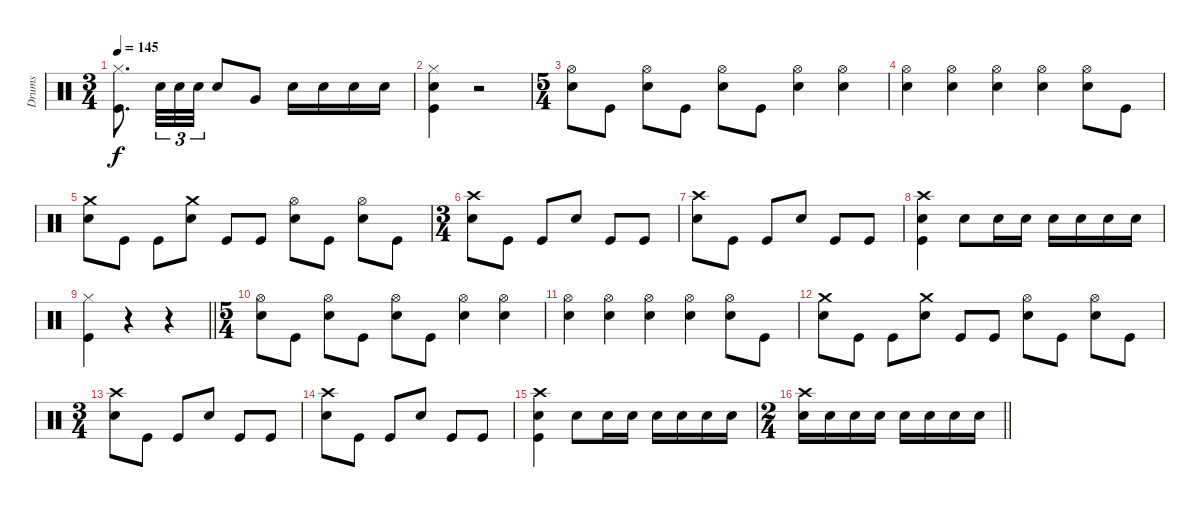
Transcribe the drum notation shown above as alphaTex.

\track ("Drums" "Drums") {instrument percussion}
\staff {score}
\articulation defaults
\ts (3 4)
\tempo 145
\clef neutral
\ks aminor
("Hi-Hat (closed)" "Kick (hit)").8{d dy f} "Snare (hit) 2".32{tu (3 2)} "Snare (hit) 2".32{tu (3 2)} "Snare (hit) 2".32{tu (3 2)} "Snare (hit) 2".8 "Very Low Tom (hit)".8 "Snare (hit) 2".16 "Snare (hit) 2".16 "Snare (hit) 2".16 "Snare (hit) 2".16 |
("Hi-Hat (closed)" "Snare (hit) 2" "Kick (hit)").4 r.2 |
\ts (5 4)
("Hi-Hat (open)" "Snare (hit) 2").8 "Kick (hit)".8 ("Hi-Hat (open)" "Snare (hit) 2").8 "Kick (hit)".8 ("Hi-Hat (open)" "Snare (hit) 2").8 "Kick (hit)".8 ("Hi-Hat (open)" "Snare (hit) 2").4 ("Hi-Hat (open)" "Snare (hit) 2").4 |
("Hi-Hat (open)" "Snare (hit) 2").4 ("Hi-Hat (open)" "Snare (hit) 2").4 ("Hi-Hat (open)" "Snare (hit) 2").4 ("Hi-Hat (open)" "Snare (hit) 2").4 ("Hi-Hat (open)" "Snare (hit) 2").8 "Kick (hit)".8 |
("Crash medium (hit)" "Snare (hit) 2").8 "Kick (hit)".8 "Kick (hit)".8 ("Crash medium (hit)" "Snare (hit) 2").8 "Kick (hit)".8 "Kick (hit)".8 ("Hi-Hat (open)" "Snare (hit) 2").8 "Kick (hit)".8 ("Hi-Hat (open)" "Snare (hit) 2").8 "Kick (hit)".8 |
\ts (3 4)
("Crash high (hit)" "Snare (hit) 2").8 "Kick (hit)".8 "Kick (hit)".8 "Snare (hit) 2".8 "Kick (hit)".8 "Kick (hit)".8 |
("Crash high (hit)" "Snare (hit) 2").8 "Kick (hit)".8 "Kick (hit)".8 "Snare (hit) 2".8 "Kick (hit)".8 "Kick (hit)".8 |
("Crash high (hit)" "Snare (hit) 2" "Kick (hit)").4 "Snare (hit) 2".8 "Snare (hit) 2".16 "Snare (hit) 2".16 "Snare (hit) 2".16 "Snare (hit) 2".16 "Snare (hit) 2".16 "Snare (hit) 2".16 |
\barLineRight lightlight
("Hi-Hat (closed)" "Kick (hit)").4 r.4 r.4 |
\ts (5 4)
("Hi-Hat (open)" "Snare (hit) 2").8 "Kick (hit)".8 ("Hi-Hat (open)" "Snare (hit) 2").8 "Kick (hit)".8 ("Hi-Hat (open)" "Snare (hit) 2").8 "Kick (hit)".8 ("Hi-Hat (open)" "Snare (hit) 2").4 ("Hi-Hat (open)" "Snare (hit) 2").4 |
("Hi-Hat (open)" "Snare (hit) 2").4 ("Hi-Hat (open)" "Snare (hit) 2").4 ("Hi-Hat (open)" "Snare (hit) 2").4 ("Hi-Hat (open)" "Snare (hit) 2").4 ("Hi-Hat (open)" "Snare (hit) 2").8 "Kick (hit)".8 |
("Crash medium (hit)" "Snare (hit) 2").8 "Kick (hit)".8 "Kick (hit)".8 ("Crash medium (hit)" "Snare (hit) 2").8 "Kick (hit)".8 "Kick (hit)".8 ("Hi-Hat (open)" "Snare (hit) 2").8 "Kick (hit)".8 ("Hi-Hat (open)" "Snare (hit) 2").8 "Kick (hit)".8 |
\ts (3 4)
("Crash high (hit)" "Snare (hit) 2").8 "Kick (hit)".8 "Kick (hit)".8 "Snare (hit) 2".8 "Kick (hit)".8 "Kick (hit)".8 |
("Crash high (hit)" "Snare (hit) 2").8 "Kick (hit)".8 "Kick (hit)".8 "Snare (hit) 2".8 "Kick (hit)".8 "Kick (hit)".8 |
("Crash high (hit)" "Snare (hit) 2" "Kick (hit)").4 "Snare (hit) 2".8 "Snare (hit) 2".16 "Snare (hit) 2".16 "Snare (hit) 2".16 "Snare (hit) 2".16 "Snare (hit) 2".16 "Snare (hit) 2".16 |
\ts (2 4)
\barLineRight lightlight
("Crash high (hit)" "Snare (hit) 2").16 "Snare (hit) 2".16 "Snare (hit) 2".16 "Snare (hit) 2".16 "Snare (hit) 2".16 "Snare (hit) 2".16 "Snare (hit) 2".16 "Snare (hit) 2".16
